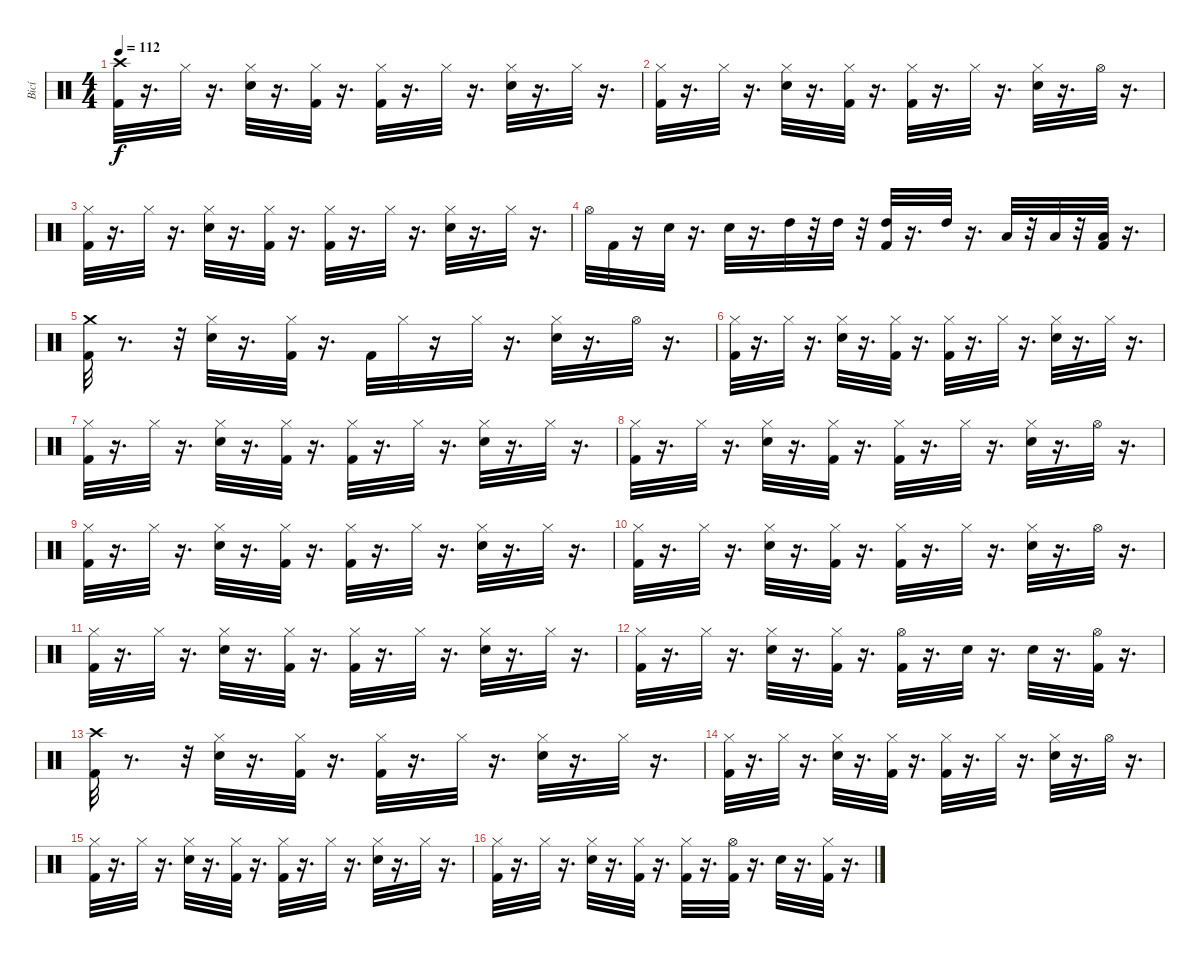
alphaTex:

\track ("Bicí" "Bicí") {instrument percussion}
\staff {score}
\articulation defaults
\ts (4 4)
\tempo 112
\clef neutral
\ks c
("Kick (hit) 2" "Crash high (hit)").32{dy f} r.16{d} "Hi-Hat (closed)".32 r.16{d} ("Snare (hit) 2" "Hi-Hat (closed)").32 r.16{d} ("Kick (hit) 2" "Hi-Hat (closed)").32 r.16{d} ("Kick (hit) 2" "Hi-Hat (closed)").32 r.16{d} "Hi-Hat (closed)".32 r.16{d} ("Snare (hit) 2" "Hi-Hat (closed)").32 r.16{d} "Hi-Hat (closed)".32 r.16{d} |
("Kick (hit) 2" "Hi-Hat (closed)").32 r.16{d} "Hi-Hat (closed)".32 r.16{d} ("Snare (hit) 2" "Hi-Hat (closed)").32 r.16{d} ("Kick (hit) 2" "Hi-Hat (closed)").32 r.16{d} ("Kick (hit) 2" "Hi-Hat (closed)").32 r.16{d} "Hi-Hat (closed)".32 r.16{d} ("Snare (hit) 2" "Hi-Hat (closed)").32 r.16{d} "Hi-Hat (open)".32 r.16{d} |
("Kick (hit) 2" "Hi-Hat (closed)").32 r.16{d} "Hi-Hat (closed)".32 r.16{d} ("Hi-Hat (closed)" "Snare (hit) 2").32 r.16{d} ("Kick (hit) 2" "Hi-Hat (closed)").32 r.16{d} ("Kick (hit) 2" "Hi-Hat (closed)").32 r.16{d} "Hi-Hat (closed)".32 r.16{d} ("Snare (hit) 2" "Hi-Hat (closed)").32 r.16{d} "Hi-Hat (closed)".32 r.16{d} |
"Hi-Hat (open)".32 "Kick (hit) 2".32 r.16 "Snare (hit) 2".32 r.16{d} "Snare (hit) 2".32 r.16{d} "High Tom (hit)".32 r.32 "High Tom (hit)".32 r.32 ("Kick (hit) 2" "High Tom (hit)").32 r.16{d} "High Tom (hit)".32 r.16{d} "Low Tom (hit)".32 r.32 "Low Floor Tom (hit)".32 r.32 ("Low Floor Tom (hit)" "Kick (hit) 2").32 r.16{d} |
("Kick (hit) 2" "Crash medium (hit)").32 r.8{d} r.32 ("Hi-Hat (closed)" "Snare (hit) 2").32 r.16{d} ("Kick (hit) 2" "Hi-Hat (closed)").32 r.16{d} "Kick (hit) 2".32 "Hi-Hat (closed)".32 r.16 "Hi-Hat (closed)".32 r.16{d} ("Hi-Hat (closed)" "Snare (hit) 2").32 r.16{d} "Hi-Hat (open)".32 r.16{d} |
("Kick (hit) 2" "Hi-Hat (closed)").32 r.16{d} "Hi-Hat (closed)".32 r.16{d} ("Snare (hit) 2" "Hi-Hat (closed)").32 r.16{d} ("Kick (hit) 2" "Hi-Hat (closed)").32 r.16{d} ("Kick (hit) 2" "Hi-Hat (closed)").32 r.16{d} "Hi-Hat (closed)".32 r.16{d} ("Hi-Hat (closed)" "Snare (hit) 2").32 r.16{d} "Hi-Hat (closed)".32 r.16{d} |
("Kick (hit) 2" "Hi-Hat (closed)").32 r.16{d} "Hi-Hat (closed)".32 r.16{d} ("Snare (hit) 2" "Hi-Hat (closed)").32 r.16{d} ("Kick (hit) 2" "Hi-Hat (closed)").32 r.16{d} ("Kick (hit) 2" "Hi-Hat (closed)").32 r.16{d} "Hi-Hat (closed)".32 r.16{d} ("Snare (hit) 2" "Hi-Hat (closed)").32 r.16{d} "Hi-Hat (closed)".32 r.16{d} |
("Hi-Hat (closed)" "Kick (hit) 2").32 r.16{d} "Hi-Hat (closed)".32 r.16{d} ("Hi-Hat (closed)" "Snare (hit) 2").32 r.16{d} ("Kick (hit) 2" "Hi-Hat (closed)").32 r.16{d} ("Kick (hit) 2" "Hi-Hat (closed)").32 r.16{d} "Hi-Hat (closed)".32 r.16{d} ("Snare (hit) 2" "Hi-Hat (closed)").32 r.16{d} "Hi-Hat (open)".32 r.16{d} |
("Kick (hit) 2" "Hi-Hat (closed)").32 r.16{d} "Hi-Hat (closed)".32 r.16{d} ("Hi-Hat (closed)" "Snare (hit) 2").32 r.16{d} ("Kick (hit) 2" "Hi-Hat (closed)").32 r.16{d} ("Kick (hit) 2" "Hi-Hat (closed)").32 r.16{d} "Hi-Hat (closed)".32 r.16{d} ("Hi-Hat (closed)" "Snare (hit) 2").32 r.16{d} "Hi-Hat (closed)".32 r.16{d} |
("Kick (hit) 2" "Hi-Hat (closed)").32 r.16{d} "Hi-Hat (closed)".32 r.16{d} ("Hi-Hat (closed)" "Snare (hit) 2").32 r.16{d} ("Kick (hit) 2" "Hi-Hat (closed)").32 r.16{d} ("Kick (hit) 2" "Hi-Hat (closed)").32 r.16{d} "Hi-Hat (closed)".32 r.16{d} ("Snare (hit) 2" "Hi-Hat (closed)").32 r.16{d} "Hi-Hat (open)".32 r.16{d} |
("Hi-Hat (closed)" "Kick (hit) 2").32 r.16{d} "Hi-Hat (closed)".32 r.16{d} ("Snare (hit) 2" "Hi-Hat (closed)").32 r.16{d} ("Kick (hit) 2" "Hi-Hat (closed)").32 r.16{d} ("Kick (hit) 2" "Hi-Hat (closed)").32 r.16{d} "Hi-Hat (closed)".32 r.16{d} ("Hi-Hat (closed)" "Snare (hit) 2").32 r.16{d} "Hi-Hat (closed)".32 r.16{d} |
("Kick (hit) 2" "Hi-Hat (closed)").32 r.16{d} "Hi-Hat (closed)".32 r.16{d} ("Snare (hit) 2" "Hi-Hat (closed)").32 r.16{d} ("Kick (hit) 2" "Hi-Hat (closed)").32 r.16{d} ("Kick (hit) 2" "Hi-Hat (open)").32 r.16{d} "Snare (hit) 2".32 r.16{d} "Snare (hit) 2".32 r.16{d} ("Kick (hit) 2" "Hi-Hat (open)").32 r.16{d} |
("Kick (hit) 2" "Crash high (hit)").32 r.8{d} r.32 ("Hi-Hat (closed)" "Snare (hit) 2").32 r.16{d} ("Kick (hit) 2" "Hi-Hat (closed)").32 r.16{d} ("Kick (hit) 2" "Hi-Hat (closed)").32 r.16{d} "Hi-Hat (closed)".32 r.16{d} ("Snare (hit) 2" "Hi-Hat (closed)").32 r.16{d} "Hi-Hat (closed)".32 r.16{d} |
("Kick (hit) 2" "Hi-Hat (closed)").32 r.16{d} "Hi-Hat (closed)".32 r.16{d} ("Snare (hit) 2" "Hi-Hat (closed)").32 r.16{d} ("Kick (hit) 2" "Hi-Hat (closed)").32 r.16{d} ("Kick (hit) 2" "Hi-Hat (closed)").32 r.16{d} "Hi-Hat (closed)".32 r.16{d} ("Hi-Hat (closed)" "Snare (hit) 2").32 r.16{d} "Hi-Hat (open)".32 r.16{d} |
("Hi-Hat (closed)" "Kick (hit) 2").32 r.16{d} "Hi-Hat (closed)".32 r.16{d} ("Hi-Hat (closed)" "Snare (hit) 2").32 r.16{d} ("Kick (hit) 2" "Hi-Hat (closed)").32 r.16{d} ("Kick (hit) 2" "Hi-Hat (closed)").32 r.16{d} "Hi-Hat (closed)".32 r.16{d} ("Snare (hit) 2" "Hi-Hat (closed)").32 r.16{d} "Hi-Hat (closed)".32 r.16{d} |
("Hi-Hat (closed)" "Kick (hit) 2").32 r.16{d} "Hi-Hat (closed)".32 r.16{d} ("Hi-Hat (closed)" "Snare (hit) 2").32 r.16{d} ("Kick (hit) 2" "Hi-Hat (closed)").32 r.16{d} ("Kick (hit) 2" "Hi-Hat (closed)").32 r.16{d} ("Kick (hit) 2" "Hi-Hat (open)").32 r.16{d} "Snare (hit) 2".32 r.16{d} ("Kick (hit) 2" "Hi-Hat (closed)").32 r.16{d}
